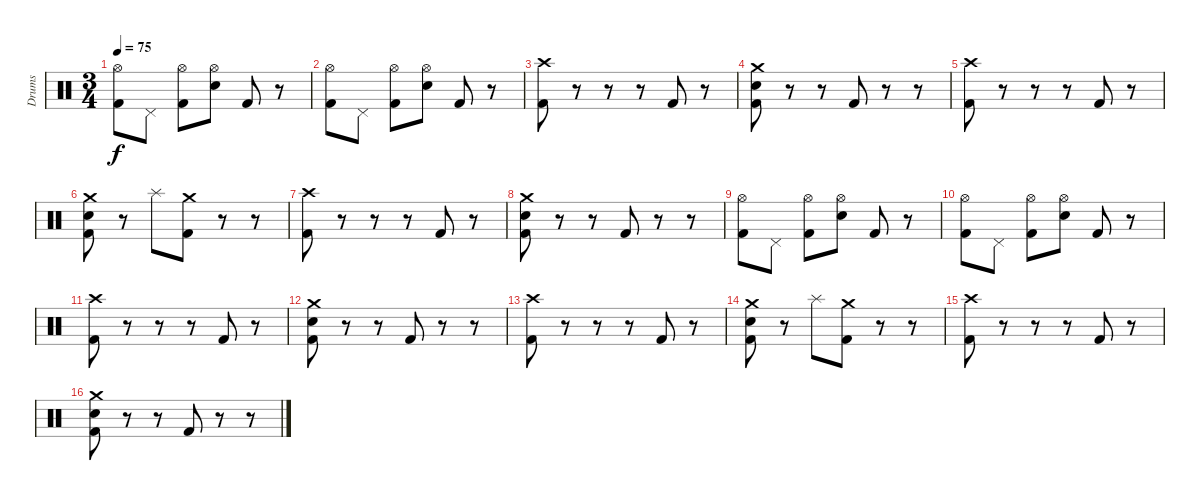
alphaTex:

\track ("Drums" "Drums") {instrument percussion}
\staff {score}
\articulation defaults
\ts (3 4)
\tempo 75
\clef neutral
\ks c
("Hi-Hat (open)" "Kick (hit) 2").8{dy f} "Pedal Hi-Hat (hit)".8 ("Hi-Hat (open)" "Kick (hit) 2").8 ("Hi-Hat (open)" "Electric Snare (hit)").8 "Kick (hit) 2".8 r.8 |
("Hi-Hat (open)" "Kick (hit) 2").8 "Pedal Hi-Hat (hit)".8 ("Hi-Hat (open)" "Kick (hit) 2").8 ("Hi-Hat (open)" "Electric Snare (hit)").8 "Kick (hit) 2".8 r.8 |
("Crash high (hit)" "Kick (hit) 2").8 r.8 r.8 r.8 "Kick (hit) 2".8 r.8 |
("Crash medium (hit)" "Electric Snare (hit)" "Kick (hit) 2").8 r.8 r.8 "Kick (hit) 2".8 r.8 r.8 |
("Crash high (hit)" "Kick (hit) 2").8 r.8 r.8 r.8 "Kick (hit) 2".8 r.8 |
("Crash medium (hit)" "Electric Snare (hit)" "Kick (hit) 2").8 r.8 "Splash (hit)".8 ("Crash medium (hit)" "Kick (hit) 2").8 r.8 r.8 |
("Crash high (hit)" "Kick (hit) 2").8 r.8 r.8 r.8 "Kick (hit) 2".8 r.8 |
("Crash medium (hit)" "Electric Snare (hit)" "Kick (hit) 2").8 r.8 r.8 "Kick (hit) 2".8 r.8 r.8 |
("Hi-Hat (open)" "Kick (hit) 2").8 "Pedal Hi-Hat (hit)".8 ("Hi-Hat (open)" "Kick (hit) 2").8 ("Hi-Hat (open)" "Electric Snare (hit)").8 "Kick (hit) 2".8 r.8 |
("Hi-Hat (open)" "Kick (hit) 2").8 "Pedal Hi-Hat (hit)".8 ("Hi-Hat (open)" "Kick (hit) 2").8 ("Hi-Hat (open)" "Electric Snare (hit)").8 "Kick (hit) 2".8 r.8 |
("Crash high (hit)" "Kick (hit) 2").8 r.8 r.8 r.8 "Kick (hit) 2".8 r.8 |
("Crash medium (hit)" "Electric Snare (hit)" "Kick (hit) 2").8 r.8 r.8 "Kick (hit) 2".8 r.8 r.8 |
("Crash high (hit)" "Kick (hit) 2").8 r.8 r.8 r.8 "Kick (hit) 2".8 r.8 |
("Crash medium (hit)" "Electric Snare (hit)" "Kick (hit) 2").8 r.8 "Splash (hit)".8 ("Crash medium (hit)" "Kick (hit) 2").8 r.8 r.8 |
("Crash high (hit)" "Kick (hit) 2").8 r.8 r.8 r.8 "Kick (hit) 2".8 r.8 |
("Crash medium (hit)" "Electric Snare (hit)" "Kick (hit) 2").8 r.8 r.8 "Kick (hit) 2".8 r.8 r.8
